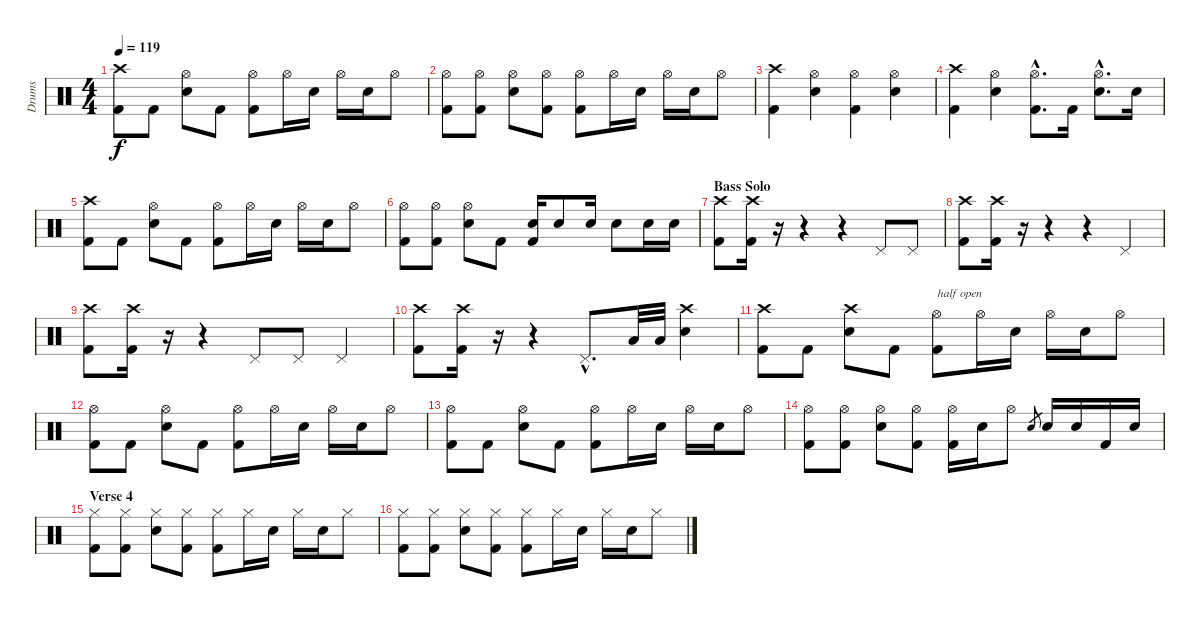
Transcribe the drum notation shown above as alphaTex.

\track ("Drums" "Drums") {instrument percussion}
\staff {score}
\articulation defaults
\ts (4 4)
\tempo 119
\clef neutral
\ks c
("Crash high (hit)" "Kick (hit) 2").8{dy f} "Kick (hit) 2".8 ("Hi-Hat (open)" "Electric Snare (hit)").8 "Kick (hit) 2".8 ("Hi-Hat (open)" "Kick (hit) 2").8 "Hi-Hat (open)".16 "Electric Snare (hit)".16 "Hi-Hat (open)".16 "Electric Snare (hit)".16 "Hi-Hat (open)".8 |
("Hi-Hat (open)" "Kick (hit) 2").8 ("Hi-Hat (open)" "Kick (hit) 2").8 ("Hi-Hat (open)" "Electric Snare (hit)").8 ("Hi-Hat (open)" "Kick (hit) 2").8 ("Hi-Hat (open)" "Kick (hit) 2").8 "Hi-Hat (open)".16 "Electric Snare (hit)".16 "Hi-Hat (open)".16 "Electric Snare (hit)".16 "Hi-Hat (open)".8 |
("Crash high (hit)" "Kick (hit) 2").4 ("Hi-Hat (open)" "Electric Snare (hit)").4 ("Hi-Hat (open)" "Kick (hit) 2").4 ("Hi-Hat (open)" "Electric Snare (hit)").4 |
("Crash high (hit)" "Kick (hit) 2").4 ("Hi-Hat (open)" "Electric Snare (hit)").4 ("Hi-Hat (open)"{hac} "Kick (hit) 2"{hac}).8{d} "Kick (hit) 2".16 ("Hi-Hat (open)"{hac} "Electric Snare (hit)"{hac}).8{d} "Electric Snare (hit)".16 |
("Crash high (hit)" "Kick (hit) 2").8 "Kick (hit) 2".8 ("Hi-Hat (open)" "Electric Snare (hit)").8 "Kick (hit) 2".8 ("Hi-Hat (open)" "Kick (hit) 2").8 "Hi-Hat (open)".16 "Electric Snare (hit)".16 "Hi-Hat (open)".16 "Electric Snare (hit)".16 "Hi-Hat (open)".8 |
("Hi-Hat (open)" "Kick (hit) 2").8 ("Hi-Hat (open)" "Kick (hit) 2").8 ("Hi-Hat (open)" "Electric Snare (hit)").8 "Kick (hit) 2".8 ("Electric Snare (hit)" "Kick (hit) 2").16 "Electric Snare (hit)".8 "Electric Snare (hit)".16 "Electric Snare (hit)".8 "Electric Snare (hit)".16 "Electric Snare (hit)".16 |
\section ("" "Bass Solo")
("Crash high (hit)" "Kick (hit) 2").8 ("Crash high (hit)" "Kick (hit) 2").16 r.16 r.4 r.4 "Pedal Hi-Hat (hit)".8 "Pedal Hi-Hat (hit)".8 |
("Crash high (hit)" "Kick (hit) 2").8 ("Crash high (hit)" "Kick (hit) 2").16 r.16 r.4 r.4 "Pedal Hi-Hat (hit)".4 |
("Crash high (hit)" "Kick (hit) 2").8 ("Crash high (hit)" "Kick (hit) 2").16 r.16 r.4 "Pedal Hi-Hat (hit)".8 "Pedal Hi-Hat (hit)".8 "Pedal Hi-Hat (hit)".4 |
("Crash high (hit)" "Kick (hit) 2").8 ("Crash high (hit)" "Kick (hit) 2").16 r.16 r.4 "Pedal Hi-Hat (hit)"{hac}.8{d} "Low Floor Tom (hit)".32 "Low Floor Tom (hit)".32 ("Crash high (hit)" "Electric Snare (hit)").4 |
("Crash high (hit)" "Kick (hit) 2").8 "Kick (hit) 2".8 ("Crash high (hit)" "Electric Snare (hit)").8 "Kick (hit) 2".8 ("Hi-Hat (open)" "Kick (hit) 2").8{txt "half open"} "Hi-Hat (open)".16 "Electric Snare (hit)".16 "Hi-Hat (open)".16 "Electric Snare (hit)".16 "Hi-Hat (open)".8 |
("Hi-Hat (open)" "Kick (hit) 2").8 "Kick (hit) 2".8 ("Hi-Hat (open)" "Electric Snare (hit)").8 "Kick (hit) 2".8 ("Hi-Hat (open)" "Kick (hit) 2").8 "Hi-Hat (open)".16 "Electric Snare (hit)".16 "Hi-Hat (open)".16 "Electric Snare (hit)".16 "Hi-Hat (open)".8 |
("Hi-Hat (open)" "Kick (hit) 2").8 "Kick (hit) 2".8 ("Hi-Hat (open)" "Electric Snare (hit)").8 "Kick (hit) 2".8 ("Hi-Hat (open)" "Kick (hit) 2").8 "Hi-Hat (open)".16 "Electric Snare (hit)".16 "Hi-Hat (open)".16 "Electric Snare (hit)".16 "Hi-Hat (open)".8 |
("Hi-Hat (open)" "Kick (hit) 2").8 ("Hi-Hat (open)" "Kick (hit) 2").8 ("Hi-Hat (open)" "Electric Snare (hit)").8 ("Hi-Hat (open)" "Kick (hit) 2").8 ("Hi-Hat (open)" "Kick (hit) 2").16 "Electric Snare (hit)".16 "Hi-Hat (open)".8 "Electric Snare (hit)".8{gr} "Electric Snare (hit)".16 "Electric Snare (hit)".16 "Kick (hit) 2".16 "Electric Snare (hit)".16 |
\section ("" "Verse 4")
("Hi-Hat (closed)" "Kick (hit) 2").8 ("Hi-Hat (closed)" "Kick (hit) 2").8 ("Hi-Hat (closed)" "Electric Snare (hit)").8 ("Hi-Hat (closed)" "Kick (hit) 2").8 ("Hi-Hat (closed)" "Kick (hit) 2").8 "Hi-Hat (closed)".16 "Electric Snare (hit)".16 "Hi-Hat (closed)".16 "Electric Snare (hit)".16 "Hi-Hat (closed)".8 |
("Hi-Hat (closed)" "Kick (hit) 2").8 ("Hi-Hat (closed)" "Kick (hit) 2").8 ("Hi-Hat (closed)" "Electric Snare (hit)").8 ("Hi-Hat (closed)" "Kick (hit) 2").8 ("Hi-Hat (closed)" "Kick (hit) 2").8 "Hi-Hat (closed)".16 "Electric Snare (hit)".16 "Hi-Hat (closed)".16 "Electric Snare (hit)".16 "Hi-Hat (closed)".8
